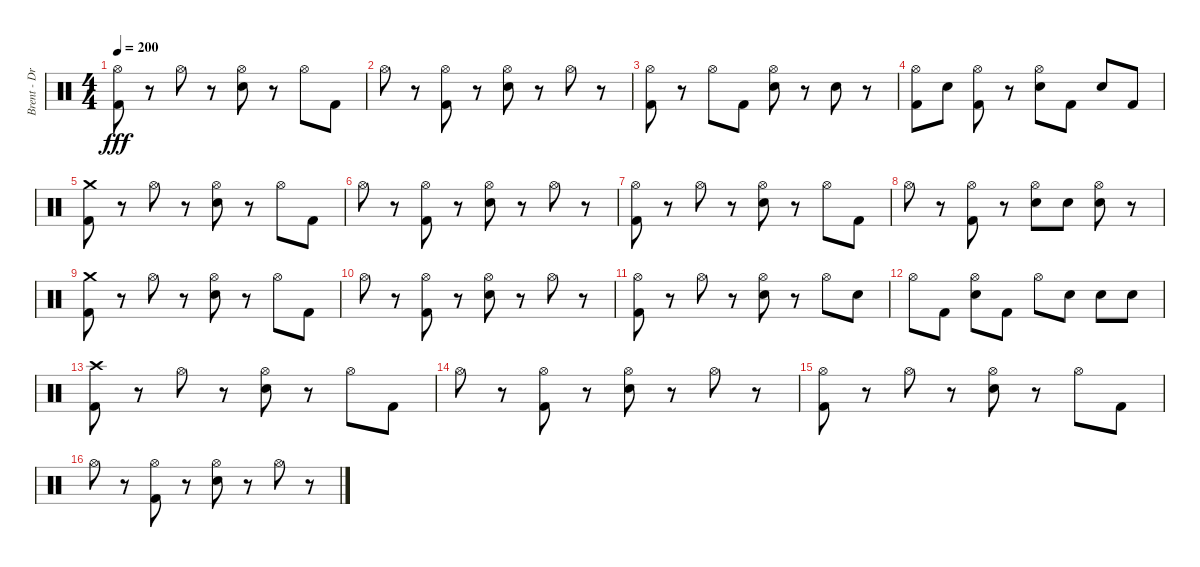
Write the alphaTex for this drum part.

\track ("Brent - Drums" "Brent - Dr") {instrument percussion}
\staff {score}
\articulation defaults
\ts (4 4)
\tempo 200
\clef neutral
\ks c
("Hi-Hat (open)" "Kick (hit) 2").8{dy fff} r.8 "Hi-Hat (open)".8 r.8 ("Hi-Hat (open)" "Snare (hit) 2").8 r.8 "Hi-Hat (open)".8 "Kick (hit) 2".8 |
"Hi-Hat (open)".8 r.8 ("Hi-Hat (open)" "Kick (hit) 2").8 r.8 ("Hi-Hat (open)" "Snare (hit) 2").8 r.8 "Hi-Hat (open)".8 r.8 |
("Hi-Hat (open)" "Kick (hit) 2").8 r.8 "Hi-Hat (open)".8 "Kick (hit) 2".8 ("Hi-Hat (open)" "Snare (hit) 2").8 r.8 "Snare (hit) 2".8 r.8 |
("Hi-Hat (open)" "Kick (hit) 2").8 "Snare (hit) 2".8 ("Hi-Hat (open)" "Kick (hit) 2").8 r.8 ("Hi-Hat (open)" "Snare (hit) 2").8 "Kick (hit) 2".8 "Snare (hit) 2".8 "Kick (hit) 2".8 |
("Crash medium (hit)" "Kick (hit) 2").8 r.8 "Hi-Hat (open)".8 r.8 ("Hi-Hat (open)" "Snare (hit) 2").8 r.8 "Hi-Hat (open)".8 "Kick (hit) 2".8 |
"Hi-Hat (open)".8 r.8 ("Hi-Hat (open)" "Kick (hit) 2").8 r.8 ("Hi-Hat (open)" "Snare (hit) 2").8 r.8 "Hi-Hat (open)".8 r.8 |
("Hi-Hat (open)" "Kick (hit) 2").8 r.8 "Hi-Hat (open)".8 r.8 ("Hi-Hat (open)" "Snare (hit) 2").8 r.8 "Hi-Hat (open)".8 "Kick (hit) 2".8 |
"Hi-Hat (open)".8 r.8 ("Hi-Hat (open)" "Kick (hit) 2").8 r.8 ("Hi-Hat (open)" "Snare (hit) 2").8 "Snare (hit) 2".8 ("Hi-Hat (open)" "Snare (hit) 2").8 r.8 |
("Crash medium (hit)" "Kick (hit) 2").8 r.8 "Hi-Hat (open)".8 r.8 ("Hi-Hat (open)" "Snare (hit) 2").8 r.8 "Hi-Hat (open)".8 "Kick (hit) 2".8 |
"Hi-Hat (open)".8 r.8 ("Hi-Hat (open)" "Kick (hit) 2").8 r.8 ("Hi-Hat (open)" "Snare (hit) 2").8 r.8 "Hi-Hat (open)".8 r.8 |
("Hi-Hat (open)" "Kick (hit) 2").8 r.8 "Hi-Hat (open)".8 r.8 ("Hi-Hat (open)" "Snare (hit) 2").8 r.8 "Hi-Hat (open)".8 "Snare (hit) 2".8 |
"Hi-Hat (open)".8 "Kick (hit) 2".8 ("Hi-Hat (open)" "Snare (hit) 2").8 "Kick (hit) 2".8 "Hi-Hat (open)".8 "Snare (hit) 2".8 "Snare (hit) 2".8 "Snare (hit) 2".8 |
("Crash high (hit)" "Kick (hit) 2").8 r.8 "Hi-Hat (open)".8 r.8 ("Hi-Hat (open)" "Snare (hit) 2").8 r.8 "Hi-Hat (open)".8 "Kick (hit) 2".8 |
"Hi-Hat (open)".8 r.8 ("Hi-Hat (open)" "Kick (hit) 2").8 r.8 ("Hi-Hat (open)" "Snare (hit) 2").8 r.8 "Hi-Hat (open)".8 r.8 |
("Hi-Hat (open)" "Kick (hit) 2").8 r.8 "Hi-Hat (open)".8 r.8 ("Hi-Hat (open)" "Snare (hit) 2").8 r.8 "Hi-Hat (open)".8 "Kick (hit) 2".8 |
"Hi-Hat (open)".8 r.8 ("Hi-Hat (open)" "Kick (hit) 2").8 r.8 ("Hi-Hat (open)" "Snare (hit) 2").8 r.8 "Hi-Hat (open)".8 r.8
